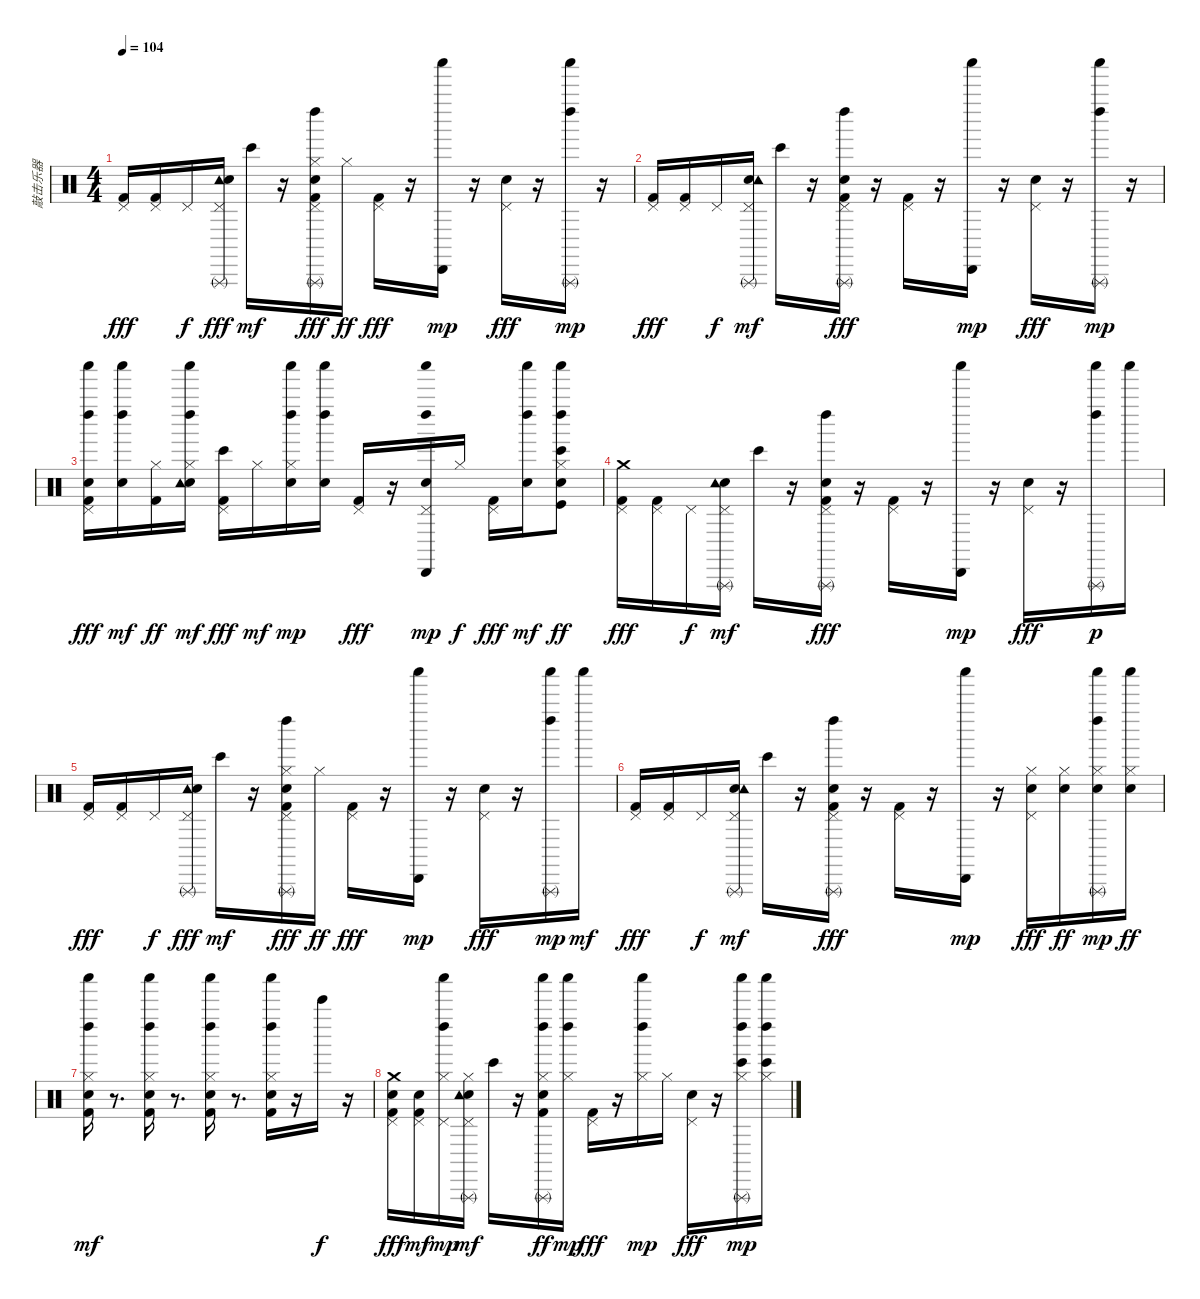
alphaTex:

\track ("敲击乐器" "敲击乐器") {instrument percussion}
\staff {score}
\articulation defaults
\ts (4 4)
\tempo 104
\clef neutral
\ks c
("Pedal Hi-Hat (hit)" "Kick (hit) 2").16{dy fff} ("Pedal Hi-Hat (hit)" "Kick (hit) 2").16 "Pedal Hi-Hat (hit)".16{dy f} ("Triangle (rnute)" "Pedal Hi-Hat (hit)" "Tambourine (hit)" "Snare (hit) 2").16{dy fff} "Bongo High (hit)".16{dy mf} r.16 ("Left Maraca (hit)" "Triangle (rnute)" "Hand Clap (hit)" "Pedal Hi-Hat (hit)" "Hi-Hat (closed)" "Kick (hit) 2").16{dy fff} "Hi-Hat (closed)".16{dy ff} ("Pedal Hi-Hat (hit)" "Kick (hit) 2").16{dy fff} r.16 ("Shaker (hit)" "Cabasa (hit)").16{dy mp} r.16 ("Pedal Hi-Hat (hit)" "Snare (hit) 2").16{dy fff} r.16 ("Triangle (rnute)" "Shaker (hit)" "Left Maraca (hit)").16{dy mp} r.16 |
("Kick (hit) 2" "Pedal Hi-Hat (hit)").16{dy fff} ("Kick (hit) 2" "Pedal Hi-Hat (hit)").16 "Pedal Hi-Hat (hit)".16{dy f} ("Triangle (rnute)" "Snare (hit) 2" "Tambourine (hit)" "Pedal Hi-Hat (hit)").16{dy mf} "Bongo High (hit)".16 r.16 ("Left Maraca (hit)" "Triangle (rnute)" "Hand Clap (hit)" "Kick (hit) 2" "Pedal Hi-Hat (hit)").16{dy fff} r.16 ("Kick (hit) 2" "Pedal Hi-Hat (hit)").16 r.16 ("Cabasa (hit)" "Shaker (hit)").16{dy mp} r.16 ("Snare (hit) 2" "Pedal Hi-Hat (hit)").16{dy fff} r.16 ("Triangle (rnute)" "Left Maraca (hit)" "Shaker (hit)").16{dy mp} r.16 |
("Shaker (hit)" "Left Maraca (hit)" "Hand Clap (hit)" "Pedal Hi-Hat (hit)" "Kick (hit) 2").16{dy fff} ("Shaker (hit)" "Left Maraca (hit)" "Hand Clap (hit)").16{dy mf} ("Hi-Hat (closed)" "Kick (hit) 2").16{dy ff} ("Shaker (hit)" "Left Maraca (hit)" "Hi-Hat (closed)" "Hand Clap (hit)" "Tambourine (hit)").16{dy mf} ("Bongo High (hit)" "Pedal Hi-Hat (hit)" "Kick (hit) 2").16{dy fff} "Hi-Hat (closed)".16{dy mf} ("Shaker (hit)" "Left Maraca (hit)" "Hi-Hat (closed)" "Hand Clap (hit)").16{dy mp} ("Shaker (hit)" "Left Maraca (hit)" "Hand Clap (hit)").16 ("Pedal Hi-Hat (hit)" "Kick (hit) 2").16{dy fff} r.16 ("Shaker (hit)" "Left Maraca (hit)" "Hand Clap (hit)" "Cabasa (hit)" "Pedal Hi-Hat (hit)").16{dy mp} "Hi-Hat (closed)".16{dy f} ("Pedal Hi-Hat (hit)" "Kick (hit) 2").16{dy fff} ("Shaker (hit)" "Left Maraca (hit)" "Hand Clap (hit)").16{dy mf} ("Shaker (hit)" "Left Maraca (hit)" "Hi-Hat (closed)" "Bongo High (hit)" "Hand Clap (hit)" "Kick (hit)").8{dy ff} |
("Crash medium (hit)" "Pedal Hi-Hat (hit)" "Kick (hit) 2").16{dy fff} ("Pedal Hi-Hat (hit)" "Kick (hit) 2").16 "Pedal Hi-Hat (hit)".16{dy f} ("Triangle (rnute)" "Snare (hit) 2" "Pedal Hi-Hat (hit)" "Tambourine (hit)").16{dy mf} "Bongo High (hit)".16 r.16 ("Left Maraca (hit)" "Triangle (rnute)" "Hand Clap (hit)" "Pedal Hi-Hat (hit)" "Kick (hit) 2").16{dy fff} r.16 ("Pedal Hi-Hat (hit)" "Kick (hit) 2").16 r.16 ("Shaker (hit)" "Cabasa (hit)").16{dy mp} r.16 ("Pedal Hi-Hat (hit)" "Snare (hit) 2").16{dy fff} r.16 ("Shaker (hit)" "Triangle (rnute)" "Left Maraca (hit)").16{dy p} "Shaker (hit)".16 |
("Pedal Hi-Hat (hit)" "Kick (hit) 2").16{dy fff} ("Pedal Hi-Hat (hit)" "Kick (hit) 2").16 "Pedal Hi-Hat (hit)".16{dy f} ("Triangle (rnute)" "Pedal Hi-Hat (hit)" "Tambourine (hit)" "Snare (hit) 2").16{dy fff} "Bongo High (hit)".16{dy mf} r.16 ("Left Maraca (hit)" "Triangle (rnute)" "Hand Clap (hit)" "Pedal Hi-Hat (hit)" "Hi-Hat (closed)" "Kick (hit) 2").16{dy fff} "Hi-Hat (closed)".16{dy ff} ("Pedal Hi-Hat (hit)" "Kick (hit) 2").16{dy fff} r.16 ("Shaker (hit)" "Cabasa (hit)").16{dy mp} r.16 ("Pedal Hi-Hat (hit)" "Snare (hit) 2").16{dy fff} r.16 ("Shaker (hit)" "Triangle (rnute)" "Left Maraca (hit)").16{dy mp} "Shaker (hit)".16{dy mf} |
("Kick (hit) 2" "Pedal Hi-Hat (hit)").16{dy fff} ("Kick (hit) 2" "Pedal Hi-Hat (hit)").16 "Pedal Hi-Hat (hit)".16{dy f} ("Triangle (rnute)" "Snare (hit) 2" "Tambourine (hit)" "Pedal Hi-Hat (hit)").16{dy mf} "Bongo High (hit)".16 r.16 ("Left Maraca (hit)" "Triangle (rnute)" "Hand Clap (hit)" "Kick (hit) 2" "Pedal Hi-Hat (hit)").16{dy fff} r.16 ("Kick (hit) 2" "Pedal Hi-Hat (hit)").16 r.16 ("Shaker (hit)" "Cabasa (hit)").16{dy mp} r.16 ("Hi-Hat (closed)" "Snare (hit) 2" "Pedal Hi-Hat (hit)").16{dy fff} ("Hi-Hat (closed)" "Snare (hit) 2").16{dy ff} ("Hi-Hat (closed)" "Snare (hit) 2" "Shaker (hit)" "Triangle (rnute)" "Left Maraca (hit)").16{dy mp} ("Hi-Hat (closed)" "Snare (hit) 2" "Shaker (hit)").16{dy ff} |
("Hi-Hat (closed)" "Snare (hit) 2" "Kick (hit) 2" "Shaker (hit)" "Left Maraca (hit)").16{dy mf} r.8{d} ("Hi-Hat (closed)" "Kick (hit) 2" "Snare (hit) 2" "Shaker (hit)" "Left Maraca (hit)").16 r.8{d} ("Hi-Hat (closed)" "Kick (hit) 2" "Snare (hit) 2" "Left Maraca (hit)" "Shaker (hit)").16 r.8{d} ("Hi-Hat (closed)" "Kick (hit) 2" "Snare (hit) 2" "Shaker (hit)" "Left Maraca (hit)").16 r.16 "Bell Tree (hit)".16{dy f} r.16 |
("Kick (hit) 2" "Hand Clap (hit)" "Pedal Hi-Hat (hit)" "Crash medium (hit)").16{dy fff} ("Kick (hit) 2" "Hand Clap (hit)" "Pedal Hi-Hat (hit)").16{dy mf} ("Hi-Hat (closed)" "Left Maraca (hit)" "Shaker (hit)" "Pedal Hi-Hat (hit)").16{dy mp} ("Snare (hit) 2" "Hi-Hat (closed)" "Triangle (rnute)" "Tambourine (hit)" "Pedal Hi-Hat (hit)").16{dy mf} "Bongo High (hit)".16 r.16 ("Kick (hit) 2" "Hi-Hat (closed)" "Hand Clap (hit)" "Shaker (hit)" "Left Maraca (hit)" "Triangle (rnute)").16{dy ff} ("Hi-Hat (closed)" "Shaker (hit)" "Left Maraca (hit)").16{dy mp} ("Kick (hit) 2" "Pedal Hi-Hat (hit)").16{dy fff} r.16 ("Hi-Hat (closed)" "Shaker (hit)" "Left Maraca (hit)").16{dy mp} "Hi-Hat (closed)".16 ("Snare (hit) 2" "Pedal Hi-Hat (hit)").16{dy fff} r.16 ("Bongo High (hit)" "Hi-Hat (closed)" "Shaker (hit)" "Left Maraca (hit)" "Triangle (rnute)").16{dy mp} ("Bongo High (hit)" "Hi-Hat (closed)" "Shaker (hit)" "Left Maraca (hit)").16
